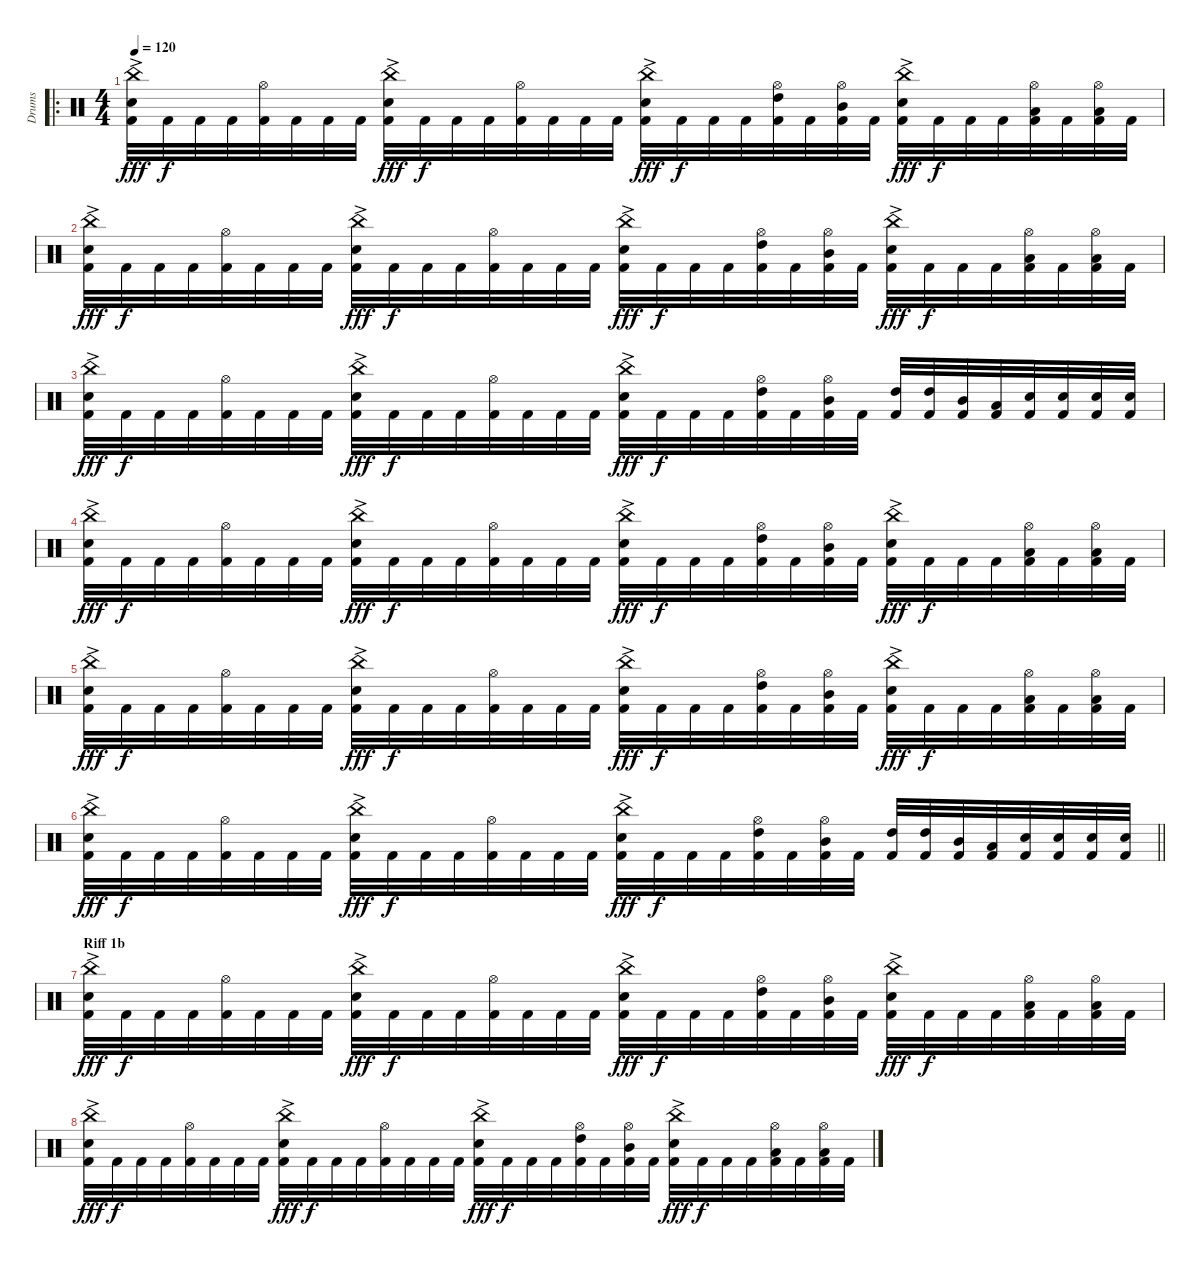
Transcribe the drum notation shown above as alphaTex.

\track ("Drums" "Drums") {instrument percussion}
\staff {score}
\articulation defaults
\ro
\ts (4 4)
\tempo 120
\clef neutral
\ks c
("China (hit)"{ac} "Electric Snare (hit)" "Kick (hit) 2").32{dy fff} "Kick (hit) 2".32{dy f} "Kick (hit) 2".32 "Kick (hit) 2".32 ("Hi-Hat (open)" "Kick (hit) 2").32 "Kick (hit) 2".32 "Kick (hit) 2".32 "Kick (hit) 2".32 ("China (hit)"{ac} "Electric Snare (hit)" "Kick (hit) 2").32{dy fff} "Kick (hit) 2".32{dy f} "Kick (hit) 2".32 "Kick (hit) 2".32 ("Hi-Hat (open)" "Kick (hit) 2").32 "Kick (hit) 2".32 "Kick (hit) 2".32 "Kick (hit) 2".32 ("China (hit)"{ac} "Electric Snare (hit)" "Kick (hit) 2").32{dy fff} "Kick (hit) 2".32{dy f} "Kick (hit) 2".32 "Kick (hit) 2".32 ("Hi-Hat (open)" "High Tom (hit)" "Kick (hit) 2").32 "Kick (hit) 2".32 ("Hi-Hat (open)" "Mid Tom (hit)" "Kick (hit) 2").32 "Kick (hit) 2".32 ("China (hit)"{ac} "Electric Snare (hit)" "Kick (hit) 2").32{dy fff} "Kick (hit) 2".32{dy f} "Kick (hit) 2".32 "Kick (hit) 2".32 ("Hi-Hat (open)" "Low Tom (hit)" "Kick (hit) 2").32 "Kick (hit) 2".32 ("Hi-Hat (open)" "Low Tom (hit)" "Kick (hit) 2").32 "Kick (hit) 2".32 |
("China (hit)"{ac} "Electric Snare (hit)" "Kick (hit) 2").32{dy fff} "Kick (hit) 2".32{dy f} "Kick (hit) 2".32 "Kick (hit) 2".32 ("Hi-Hat (open)" "Kick (hit) 2").32 "Kick (hit) 2".32 "Kick (hit) 2".32 "Kick (hit) 2".32 ("China (hit)"{ac} "Electric Snare (hit)" "Kick (hit) 2").32{dy fff} "Kick (hit) 2".32{dy f} "Kick (hit) 2".32 "Kick (hit) 2".32 ("Hi-Hat (open)" "Kick (hit) 2").32 "Kick (hit) 2".32 "Kick (hit) 2".32 "Kick (hit) 2".32 ("China (hit)"{ac} "Electric Snare (hit)" "Kick (hit) 2").32{dy fff} "Kick (hit) 2".32{dy f} "Kick (hit) 2".32 "Kick (hit) 2".32 ("Hi-Hat (open)" "High Tom (hit)" "Kick (hit) 2").32 "Kick (hit) 2".32 ("Hi-Hat (open)" "Mid Tom (hit)" "Kick (hit) 2").32 "Kick (hit) 2".32 ("China (hit)"{ac} "Electric Snare (hit)" "Kick (hit) 2").32{dy fff} "Kick (hit) 2".32{dy f} "Kick (hit) 2".32 "Kick (hit) 2".32 ("Hi-Hat (open)" "Low Tom (hit)" "Kick (hit) 2").32 "Kick (hit) 2".32 ("Hi-Hat (open)" "Low Tom (hit)" "Kick (hit) 2").32 "Kick (hit) 2".32 |
("China (hit)"{ac} "Electric Snare (hit)" "Kick (hit) 2").32{dy fff} "Kick (hit) 2".32{dy f} "Kick (hit) 2".32 "Kick (hit) 2".32 ("Hi-Hat (open)" "Kick (hit) 2").32 "Kick (hit) 2".32 "Kick (hit) 2".32 "Kick (hit) 2".32 ("China (hit)"{ac} "Electric Snare (hit)" "Kick (hit) 2").32{dy fff} "Kick (hit) 2".32{dy f} "Kick (hit) 2".32 "Kick (hit) 2".32 ("Hi-Hat (open)" "Kick (hit) 2").32 "Kick (hit) 2".32 "Kick (hit) 2".32 "Kick (hit) 2".32 ("China (hit)"{ac} "Electric Snare (hit)" "Kick (hit) 2").32{dy fff} "Kick (hit) 2".32{dy f} "Kick (hit) 2".32 "Kick (hit) 2".32 ("Hi-Hat (open)" "High Tom (hit)" "Kick (hit) 2").32 "Kick (hit) 2".32 ("Hi-Hat (open)" "Mid Tom (hit)" "Kick (hit) 2").32 "Kick (hit) 2".32 ("High Tom (hit)" "Kick (hit) 2").32 ("High Tom (hit)" "Kick (hit) 2").32 ("Mid Tom (hit)" "Kick (hit) 2").32 ("Low Tom (hit)" "Kick (hit) 2").32 ("Electric Snare (hit)" "Kick (hit) 2").32 ("Electric Snare (hit)" "Kick (hit) 2").32 ("Electric Snare (hit)" "Kick (hit) 2").32 ("Electric Snare (hit)" "Kick (hit) 2").32 |
("China (hit)"{ac} "Electric Snare (hit)" "Kick (hit) 2").32{dy fff} "Kick (hit) 2".32{dy f} "Kick (hit) 2".32 "Kick (hit) 2".32 ("Hi-Hat (open)" "Kick (hit) 2").32 "Kick (hit) 2".32 "Kick (hit) 2".32 "Kick (hit) 2".32 ("China (hit)"{ac} "Electric Snare (hit)" "Kick (hit) 2").32{dy fff} "Kick (hit) 2".32{dy f} "Kick (hit) 2".32 "Kick (hit) 2".32 ("Hi-Hat (open)" "Kick (hit) 2").32 "Kick (hit) 2".32 "Kick (hit) 2".32 "Kick (hit) 2".32 ("China (hit)"{ac} "Electric Snare (hit)" "Kick (hit) 2").32{dy fff} "Kick (hit) 2".32{dy f} "Kick (hit) 2".32 "Kick (hit) 2".32 ("Hi-Hat (open)" "High Tom (hit)" "Kick (hit) 2").32 "Kick (hit) 2".32 ("Hi-Hat (open)" "Mid Tom (hit)" "Kick (hit) 2").32 "Kick (hit) 2".32 ("China (hit)"{ac} "Electric Snare (hit)" "Kick (hit) 2").32{dy fff} "Kick (hit) 2".32{dy f} "Kick (hit) 2".32 "Kick (hit) 2".32 ("Hi-Hat (open)" "Low Tom (hit)" "Kick (hit) 2").32 "Kick (hit) 2".32 ("Hi-Hat (open)" "Low Tom (hit)" "Kick (hit) 2").32 "Kick (hit) 2".32 |
("China (hit)"{ac} "Electric Snare (hit)" "Kick (hit) 2").32{dy fff} "Kick (hit) 2".32{dy f} "Kick (hit) 2".32 "Kick (hit) 2".32 ("Hi-Hat (open)" "Kick (hit) 2").32 "Kick (hit) 2".32 "Kick (hit) 2".32 "Kick (hit) 2".32 ("China (hit)"{ac} "Electric Snare (hit)" "Kick (hit) 2").32{dy fff} "Kick (hit) 2".32{dy f} "Kick (hit) 2".32 "Kick (hit) 2".32 ("Hi-Hat (open)" "Kick (hit) 2").32 "Kick (hit) 2".32 "Kick (hit) 2".32 "Kick (hit) 2".32 ("China (hit)"{ac} "Electric Snare (hit)" "Kick (hit) 2").32{dy fff} "Kick (hit) 2".32{dy f} "Kick (hit) 2".32 "Kick (hit) 2".32 ("Hi-Hat (open)" "High Tom (hit)" "Kick (hit) 2").32 "Kick (hit) 2".32 ("Hi-Hat (open)" "Mid Tom (hit)" "Kick (hit) 2").32 "Kick (hit) 2".32 ("China (hit)"{ac} "Electric Snare (hit)" "Kick (hit) 2").32{dy fff} "Kick (hit) 2".32{dy f} "Kick (hit) 2".32 "Kick (hit) 2".32 ("Hi-Hat (open)" "Low Tom (hit)" "Kick (hit) 2").32 "Kick (hit) 2".32 ("Hi-Hat (open)" "Low Tom (hit)" "Kick (hit) 2").32 "Kick (hit) 2".32 |
\barLineRight lightlight
("China (hit)"{ac} "Electric Snare (hit)" "Kick (hit) 2").32{dy fff} "Kick (hit) 2".32{dy f} "Kick (hit) 2".32 "Kick (hit) 2".32 ("Hi-Hat (open)" "Kick (hit) 2").32 "Kick (hit) 2".32 "Kick (hit) 2".32 "Kick (hit) 2".32 ("China (hit)"{ac} "Electric Snare (hit)" "Kick (hit) 2").32{dy fff} "Kick (hit) 2".32{dy f} "Kick (hit) 2".32 "Kick (hit) 2".32 ("Hi-Hat (open)" "Kick (hit) 2").32 "Kick (hit) 2".32 "Kick (hit) 2".32 "Kick (hit) 2".32 ("China (hit)"{ac} "Electric Snare (hit)" "Kick (hit) 2").32{dy fff} "Kick (hit) 2".32{dy f} "Kick (hit) 2".32 "Kick (hit) 2".32 ("Hi-Hat (open)" "High Tom (hit)" "Kick (hit) 2").32 "Kick (hit) 2".32 ("Hi-Hat (open)" "Mid Tom (hit)" "Kick (hit) 2").32 "Kick (hit) 2".32 ("High Tom (hit)" "Kick (hit) 2").32 ("High Tom (hit)" "Kick (hit) 2").32 ("Mid Tom (hit)" "Kick (hit) 2").32 ("Low Tom (hit)" "Kick (hit) 2").32 ("Electric Snare (hit)" "Kick (hit) 2").32 ("Electric Snare (hit)" "Kick (hit) 2").32 ("Electric Snare (hit)" "Kick (hit) 2").32 ("Electric Snare (hit)" "Kick (hit) 2").32 |
\section ("" "Riff 1b")
("China (hit)"{ac} "Electric Snare (hit)" "Kick (hit) 2").32{dy fff} "Kick (hit) 2".32{dy f} "Kick (hit) 2".32 "Kick (hit) 2".32 ("Hi-Hat (open)" "Kick (hit) 2").32 "Kick (hit) 2".32 "Kick (hit) 2".32 "Kick (hit) 2".32 ("China (hit)"{ac} "Electric Snare (hit)" "Kick (hit) 2").32{dy fff} "Kick (hit) 2".32{dy f} "Kick (hit) 2".32 "Kick (hit) 2".32 ("Hi-Hat (open)" "Kick (hit) 2").32 "Kick (hit) 2".32 "Kick (hit) 2".32 "Kick (hit) 2".32 ("China (hit)"{ac} "Electric Snare (hit)" "Kick (hit) 2").32{dy fff} "Kick (hit) 2".32{dy f} "Kick (hit) 2".32 "Kick (hit) 2".32 ("Hi-Hat (open)" "High Tom (hit)" "Kick (hit) 2").32 "Kick (hit) 2".32 ("Hi-Hat (open)" "Mid Tom (hit)" "Kick (hit) 2").32 "Kick (hit) 2".32 ("China (hit)"{ac} "Electric Snare (hit)" "Kick (hit) 2").32{dy fff} "Kick (hit) 2".32{dy f} "Kick (hit) 2".32 "Kick (hit) 2".32 ("Hi-Hat (open)" "Low Tom (hit)" "Kick (hit) 2").32 "Kick (hit) 2".32 ("Hi-Hat (open)" "Low Tom (hit)" "Kick (hit) 2").32 "Kick (hit) 2".32 |
("China (hit)"{ac} "Electric Snare (hit)" "Kick (hit) 2").32{dy fff} "Kick (hit) 2".32{dy f} "Kick (hit) 2".32 "Kick (hit) 2".32 ("Hi-Hat (open)" "Kick (hit) 2").32 "Kick (hit) 2".32 "Kick (hit) 2".32 "Kick (hit) 2".32 ("China (hit)"{ac} "Electric Snare (hit)" "Kick (hit) 2").32{dy fff} "Kick (hit) 2".32{dy f} "Kick (hit) 2".32 "Kick (hit) 2".32 ("Hi-Hat (open)" "Kick (hit) 2").32 "Kick (hit) 2".32 "Kick (hit) 2".32 "Kick (hit) 2".32 ("China (hit)"{ac} "Electric Snare (hit)" "Kick (hit) 2").32{dy fff} "Kick (hit) 2".32{dy f} "Kick (hit) 2".32 "Kick (hit) 2".32 ("Hi-Hat (open)" "High Tom (hit)" "Kick (hit) 2").32 "Kick (hit) 2".32 ("Hi-Hat (open)" "Mid Tom (hit)" "Kick (hit) 2").32 "Kick (hit) 2".32 ("China (hit)"{ac} "Electric Snare (hit)" "Kick (hit) 2").32{dy fff} "Kick (hit) 2".32{dy f} "Kick (hit) 2".32 "Kick (hit) 2".32 ("Hi-Hat (open)" "Low Tom (hit)" "Kick (hit) 2").32 "Kick (hit) 2".32 ("Hi-Hat (open)" "Low Tom (hit)" "Kick (hit) 2").32 "Kick (hit) 2".32
